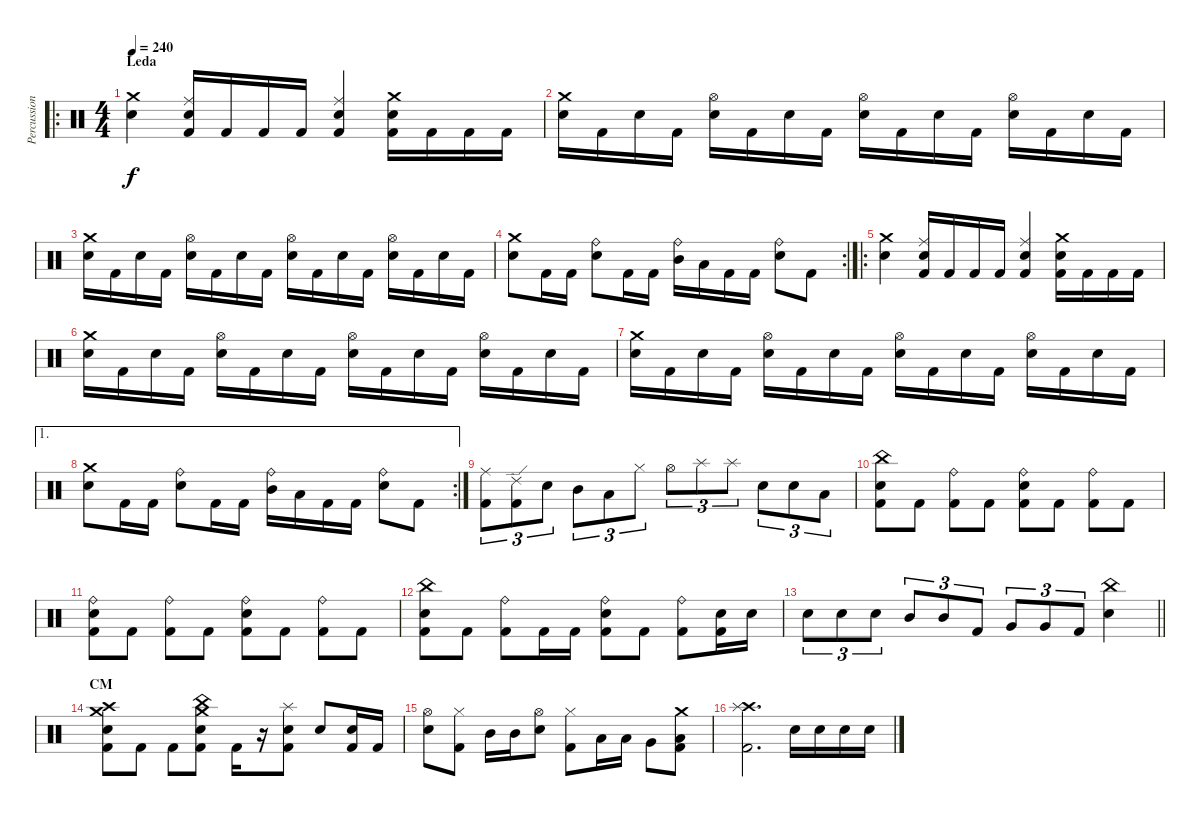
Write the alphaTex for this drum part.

\track ("Percussion" "Percussion") {instrument percussion}
\staff {score}
\articulation defaults
\ro
\ts (4 4)
\section ("" "Leda")
\tempo 240
\clef neutral
\ks c
("Crash medium (hit)" "Electric Snare (hit)").4{dy f} ("Ride (middle)" "Electric Snare (hit)" "Kick (hit) 2").16 "Kick (hit) 2".16 "Kick (hit) 2".16 "Kick (hit) 2".16 ("Ride (middle)" "Electric Snare (hit)" "Kick (hit) 2").4 ("Crash medium (hit)" "Electric Snare (hit)" "Kick (hit) 2").16 "Kick (hit) 2".16 "Kick (hit) 2".16 "Kick (hit) 2".16 |
("Crash medium (hit)" "Electric Snare (hit)").16 "Kick (hit) 2".16 "Electric Snare (hit)".16 "Kick (hit) 2".16 ("Hi-Hat (open)" "Electric Snare (hit)").16 "Kick (hit) 2".16 "Electric Snare (hit)".16 "Kick (hit) 2".16 ("Hi-Hat (open)" "Electric Snare (hit)").16 "Kick (hit) 2".16 "Electric Snare (hit)".16 "Kick (hit) 2".16 ("Hi-Hat (open)" "Electric Snare (hit)").16 "Kick (hit) 2".16 "Electric Snare (hit)".16 "Kick (hit) 2".16 |
("Crash medium (hit)" "Electric Snare (hit)").16 "Kick (hit) 2".16 "Electric Snare (hit)".16 "Kick (hit) 2".16 ("Hi-Hat (open)" "Electric Snare (hit)").16 "Kick (hit) 2".16 "Electric Snare (hit)".16 "Kick (hit) 2".16 ("Hi-Hat (open)" "Electric Snare (hit)").16 "Kick (hit) 2".16 "Electric Snare (hit)".16 "Kick (hit) 2".16 ("Hi-Hat (open)" "Electric Snare (hit)").16 "Kick (hit) 2".16 "Electric Snare (hit)".16 "Kick (hit) 2".16 |
\rc 2
("Crash medium (hit)" "Electric Snare (hit)").8 "Kick (hit) 2".16 "Kick (hit) 2".16 ("Ride (bell)" "Electric Snare (hit)").8 "Kick (hit) 2".16 "Kick (hit) 2".16 ("Ride (bell)" "Mid Tom (hit)").16 "Low Tom (hit)".16 "Kick (hit) 2".16 "Kick (hit) 2".16 ("Ride (bell)" "Electric Snare (hit)").8 "Kick (hit) 2".8 |
\ro
("Crash medium (hit)" "Electric Snare (hit)").4 ("Ride (middle)" "Electric Snare (hit)" "Kick (hit) 2").16 "Kick (hit) 2".16 "Kick (hit) 2".16 "Kick (hit) 2".16 ("Ride (middle)" "Electric Snare (hit)" "Kick (hit) 2").4 ("Crash medium (hit)" "Electric Snare (hit)" "Kick (hit) 2").16 "Kick (hit) 2".16 "Kick (hit) 2".16 "Kick (hit) 2".16 |
("Crash medium (hit)" "Electric Snare (hit)").16 "Kick (hit) 2".16 "Electric Snare (hit)".16 "Kick (hit) 2".16 ("Hi-Hat (open)" "Electric Snare (hit)").16 "Kick (hit) 2".16 "Electric Snare (hit)".16 "Kick (hit) 2".16 ("Hi-Hat (open)" "Electric Snare (hit)").16 "Kick (hit) 2".16 "Electric Snare (hit)".16 "Kick (hit) 2".16 ("Hi-Hat (open)" "Electric Snare (hit)").16 "Kick (hit) 2".16 "Electric Snare (hit)".16 "Kick (hit) 2".16 |
("Crash medium (hit)" "Electric Snare (hit)").16 "Kick (hit) 2".16 "Electric Snare (hit)".16 "Kick (hit) 2".16 ("Hi-Hat (open)" "Electric Snare (hit)").16 "Kick (hit) 2".16 "Electric Snare (hit)".16 "Kick (hit) 2".16 ("Hi-Hat (open)" "Electric Snare (hit)").16 "Kick (hit) 2".16 "Electric Snare (hit)".16 "Kick (hit) 2".16 ("Hi-Hat (open)" "Electric Snare (hit)").16 "Kick (hit) 2".16 "Electric Snare (hit)".16 "Kick (hit) 2".16 |
\ae 1
\rc 2
("Crash medium (hit)" "Electric Snare (hit)").8 "Kick (hit) 2".16 "Kick (hit) 2".16 ("Ride (bell)" "Electric Snare (hit)").8 "Kick (hit) 2".16 "Kick (hit) 2".16 ("Ride (bell)" "Mid Tom (hit)").16 "Low Tom (hit)".16 "Kick (hit) 2".16 "Kick (hit) 2".16 ("Ride (bell)" "Electric Snare (hit)").8 "Kick (hit) 2".8 |
("Ride (middle)" "Kick (hit) 2").8{tu (3 2)} ("Ride (edge) 2" "Kick (hit) 2").8{tu (3 2)} "Electric Snare (hit)".8{tu (3 2)} "Mid Tom (hit)".8{tu (3 2)} "Low Tom (hit)".8{tu (3 2)} "Hi-Hat (closed)".8{tu (3 2)} "Hi-Hat (open)".8{tu (3 2)} "Splash (hit)".8{tu (3 2)} "Splash (hit)".8{tu (3 2)} "Electric Snare (hit)".8{tu (3 2)} "Electric Snare (hit)".8{tu (3 2)} "Low Tom (hit)".8{tu (3 2)} |
("China (hit)" "Electric Snare (hit)" "Kick (hit) 2").8 "Kick (hit) 2".8 ("Ride (bell)" "Kick (hit) 2").8 "Kick (hit) 2".8 ("Ride (bell)" "Electric Snare (hit)" "Kick (hit) 2").8 "Kick (hit) 2".8 ("Ride (bell)" "Kick (hit) 2").8 "Kick (hit) 2".8 |
("Ride (bell)" "Electric Snare (hit)" "Kick (hit) 2").8 "Kick (hit) 2".8 ("Ride (bell)" "Kick (hit) 2").8 "Kick (hit) 2".8 ("Ride (bell)" "Electric Snare (hit)" "Kick (hit) 2").8 "Kick (hit) 2".8 ("Ride (bell)" "Kick (hit) 2").8 "Kick (hit) 2".8 |
("China (hit)" "Electric Snare (hit)" "Kick (hit) 2").8 "Kick (hit) 2".8 ("Ride (bell)" "Kick (hit) 2").8 "Kick (hit) 2".16 "Kick (hit) 2".16 ("Ride (bell)" "Electric Snare (hit)" "Kick (hit) 2").8 "Kick (hit) 2".8 ("Ride (bell)" "Kick (hit) 2").8 ("Electric Snare (hit)" "Kick (hit) 2").16 "Electric Snare (hit)".16 |
\barLineRight lightlight "Electric Snare (hit)".8{tu (3 2)} "Electric Snare (hit)".8{tu (3 2)} "Electric Snare (hit)".8{tu (3 2)} "Mid Tom (hit)".8{tu (3 2)} "Mid Tom (hit)".8{tu (3 2)} "Kick (hit) 2".8{tu (3 2)} "Very Low Tom (hit)".8{tu (3 2)} "Very Low Tom (hit)".8{tu (3 2)} "Kick (hit) 2".8{tu (3 2)}
("China (hit)" "Electric Snare (hit)").4 |
\section ("" "CM")
("Crash medium (hit)" "Crash high (hit)" "Electric Snare (hit)" "Kick (hit) 2").8 "Kick (hit) 2".8 "Kick (hit) 2".8 ("Crash medium (hit)" "China (hit)" "Electric Snare (hit)" "Kick (hit) 2").8 "Kick (hit) 2".16 r.16 ("Splash (hit)" "Electric Snare (hit)" "Kick (hit) 2").8 "Electric Snare (hit)".8 ("Electric Snare (hit)" "Kick (hit) 2").16 "Kick (hit) 2".16 |
("Hi-Hat (open)" "Electric Snare (hit)").8 ("Hi-Hat (closed)" "Kick (hit) 2").8 "Mid Tom (hit)".16 "Mid Tom (hit)".16 ("Hi-Hat (open)" "Electric Snare (hit)").8 ("Hi-Hat (closed)" "Kick (hit) 2").8 "Low Tom (hit)".16 "Low Tom (hit)".16 "Very Low Tom (hit)".8 ("Crash medium (hit)" "Low Floor Tom (hit)" "Kick (hit) 2").8 |
("Crash high (hit)" "Splash (hit)" "Kick (hit) 2").2{d} "Electric Snare (hit)".16 "Electric Snare (hit)".16 "Electric Snare (hit)".16 "Electric Snare (hit)".16
